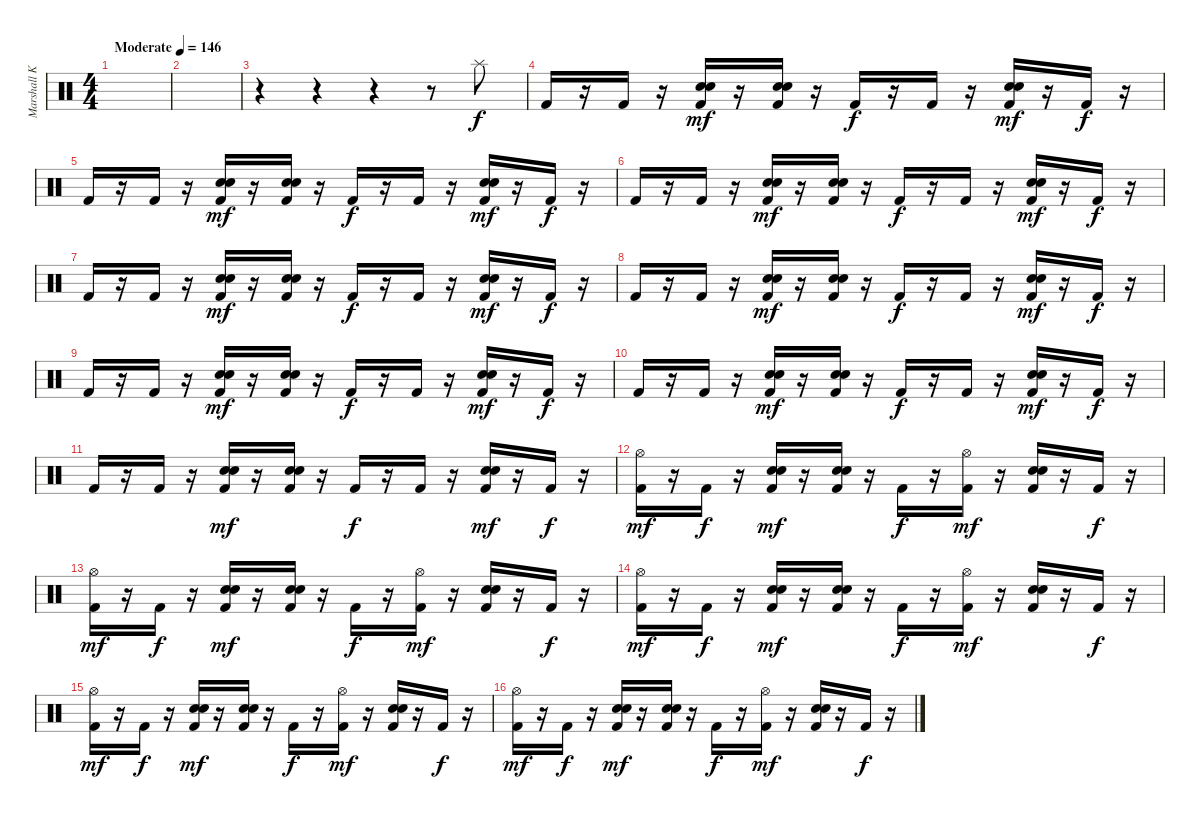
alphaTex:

\track ("Marshall Kilpatric" "Marshall K") {instrument percussion}
\staff {score}
\articulation defaults
\ts (4 4)
\tempo (146 "Moderate")
\clef neutral
\ks c
|
|
r.4 r.4 r.4 r.8 "Splash (hit)".8 |
"Kick (hit) 2".16 r.16 "Kick (hit) 2".16 r.16 ("Hand Clap (hit)" "Electric Snare (hit)" "Kick (hit) 2").16{dy mf} r.16 ("Hand Clap (hit)" "Electric Snare (hit)" "Kick (hit) 2").16 r.16 "Kick (hit) 2".16{dy f} r.16 "Kick (hit) 2".16 r.16 ("Hand Clap (hit)" "Electric Snare (hit)" "Kick (hit) 2").16{dy mf} r.16 "Kick (hit) 2".16{dy f} r.16 |
"Kick (hit) 2".16 r.16 "Kick (hit) 2".16 r.16 ("Hand Clap (hit)" "Electric Snare (hit)" "Kick (hit) 2").16{dy mf} r.16 ("Hand Clap (hit)" "Electric Snare (hit)" "Kick (hit) 2").16 r.16 "Kick (hit) 2".16{dy f} r.16 "Kick (hit) 2".16 r.16 ("Hand Clap (hit)" "Electric Snare (hit)" "Kick (hit) 2").16{dy mf} r.16 "Kick (hit) 2".16{dy f} r.16 |
"Kick (hit) 2".16 r.16 "Kick (hit) 2".16 r.16 ("Hand Clap (hit)" "Electric Snare (hit)" "Kick (hit) 2").16{dy mf} r.16 ("Hand Clap (hit)" "Electric Snare (hit)" "Kick (hit) 2").16 r.16 "Kick (hit) 2".16{dy f} r.16 "Kick (hit) 2".16 r.16 ("Hand Clap (hit)" "Electric Snare (hit)" "Kick (hit) 2").16{dy mf} r.16 "Kick (hit) 2".16{dy f} r.16 |
"Kick (hit) 2".16 r.16 "Kick (hit) 2".16 r.16 ("Hand Clap (hit)" "Electric Snare (hit)" "Kick (hit) 2").16{dy mf} r.16 ("Hand Clap (hit)" "Electric Snare (hit)" "Kick (hit) 2").16 r.16 "Kick (hit) 2".16{dy f} r.16 "Kick (hit) 2".16 r.16 ("Hand Clap (hit)" "Electric Snare (hit)" "Kick (hit) 2").16{dy mf} r.16 "Kick (hit) 2".16{dy f} r.16 |
"Kick (hit) 2".16 r.16 "Kick (hit) 2".16 r.16 ("Hand Clap (hit)" "Electric Snare (hit)" "Kick (hit) 2").16{dy mf} r.16 ("Hand Clap (hit)" "Electric Snare (hit)" "Kick (hit) 2").16 r.16 "Kick (hit) 2".16{dy f} r.16 "Kick (hit) 2".16 r.16 ("Hand Clap (hit)" "Electric Snare (hit)" "Kick (hit) 2").16{dy mf} r.16 "Kick (hit) 2".16{dy f} r.16 |
"Kick (hit) 2".16 r.16 "Kick (hit) 2".16 r.16 ("Hand Clap (hit)" "Electric Snare (hit)" "Kick (hit) 2").16{dy mf} r.16 ("Hand Clap (hit)" "Electric Snare (hit)" "Kick (hit) 2").16 r.16 "Kick (hit) 2".16{dy f} r.16 "Kick (hit) 2".16 r.16 ("Hand Clap (hit)" "Electric Snare (hit)" "Kick (hit) 2").16{dy mf} r.16 "Kick (hit) 2".16{dy f} r.16 |
"Kick (hit) 2".16 r.16 "Kick (hit) 2".16 r.16 ("Hand Clap (hit)" "Electric Snare (hit)" "Kick (hit) 2").16{dy mf} r.16 ("Hand Clap (hit)" "Electric Snare (hit)" "Kick (hit) 2").16 r.16 "Kick (hit) 2".16{dy f} r.16 "Kick (hit) 2".16 r.16 ("Hand Clap (hit)" "Electric Snare (hit)" "Kick (hit) 2").16{dy mf} r.16 "Kick (hit) 2".16{dy f} r.16 |
"Kick (hit) 2".16 r.16 "Kick (hit) 2".16 r.16 ("Hand Clap (hit)" "Electric Snare (hit)" "Kick (hit) 2").16{dy mf} r.16 ("Hand Clap (hit)" "Electric Snare (hit)" "Kick (hit) 2").16 r.16 "Kick (hit) 2".16{dy f} r.16 "Kick (hit) 2".16 r.16 ("Hand Clap (hit)" "Electric Snare (hit)" "Kick (hit) 2").16{dy mf} r.16 "Kick (hit) 2".16{dy f} r.16 |
("Hi-Hat (open)" "Kick (hit) 2").16{dy mf} r.16 "Kick (hit) 2".16{dy f} r.16 ("Hand Clap (hit)" "Electric Snare (hit)" "Kick (hit) 2").16{dy mf} r.16 ("Hand Clap (hit)" "Electric Snare (hit)" "Kick (hit) 2").16 r.16 "Kick (hit) 2".16{dy f} r.16 ("Hi-Hat (open)" "Kick (hit) 2").16{dy mf} r.16 ("Hand Clap (hit)" "Electric Snare (hit)" "Kick (hit) 2").16 r.16 "Kick (hit) 2".16{dy f} r.16 |
("Hi-Hat (open)" "Kick (hit) 2").16{dy mf} r.16 "Kick (hit) 2".16{dy f} r.16 ("Hand Clap (hit)" "Electric Snare (hit)" "Kick (hit) 2").16{dy mf} r.16 ("Hand Clap (hit)" "Electric Snare (hit)" "Kick (hit) 2").16 r.16 "Kick (hit) 2".16{dy f} r.16 ("Hi-Hat (open)" "Kick (hit) 2").16{dy mf} r.16 ("Hand Clap (hit)" "Electric Snare (hit)" "Kick (hit) 2").16 r.16 "Kick (hit) 2".16{dy f} r.16 |
("Hi-Hat (open)" "Kick (hit) 2").16{dy mf} r.16 "Kick (hit) 2".16{dy f} r.16 ("Hand Clap (hit)" "Electric Snare (hit)" "Kick (hit) 2").16{dy mf} r.16 ("Hand Clap (hit)" "Electric Snare (hit)" "Kick (hit) 2").16 r.16 "Kick (hit) 2".16{dy f} r.16 ("Hi-Hat (open)" "Kick (hit) 2").16{dy mf} r.16 ("Hand Clap (hit)" "Electric Snare (hit)" "Kick (hit) 2").16 r.16 "Kick (hit) 2".16{dy f} r.16 |
("Hi-Hat (open)" "Kick (hit) 2").16{dy mf} r.16 "Kick (hit) 2".16{dy f} r.16 ("Hand Clap (hit)" "Electric Snare (hit)" "Kick (hit) 2").16{dy mf} r.16 ("Hand Clap (hit)" "Electric Snare (hit)" "Kick (hit) 2").16 r.16 "Kick (hit) 2".16{dy f} r.16 ("Hi-Hat (open)" "Kick (hit) 2").16{dy mf} r.16 ("Hand Clap (hit)" "Electric Snare (hit)" "Kick (hit) 2").16 r.16 "Kick (hit) 2".16{dy f} r.16 |
("Hi-Hat (open)" "Kick (hit) 2").16{dy mf} r.16 "Kick (hit) 2".16{dy f} r.16 ("Hand Clap (hit)" "Electric Snare (hit)" "Kick (hit) 2").16{dy mf} r.16 ("Hand Clap (hit)" "Electric Snare (hit)" "Kick (hit) 2").16 r.16 "Kick (hit) 2".16{dy f} r.16 ("Hi-Hat (open)" "Kick (hit) 2").16{dy mf} r.16 ("Hand Clap (hit)" "Electric Snare (hit)" "Kick (hit) 2").16 r.16 "Kick (hit) 2".16{dy f} r.16
